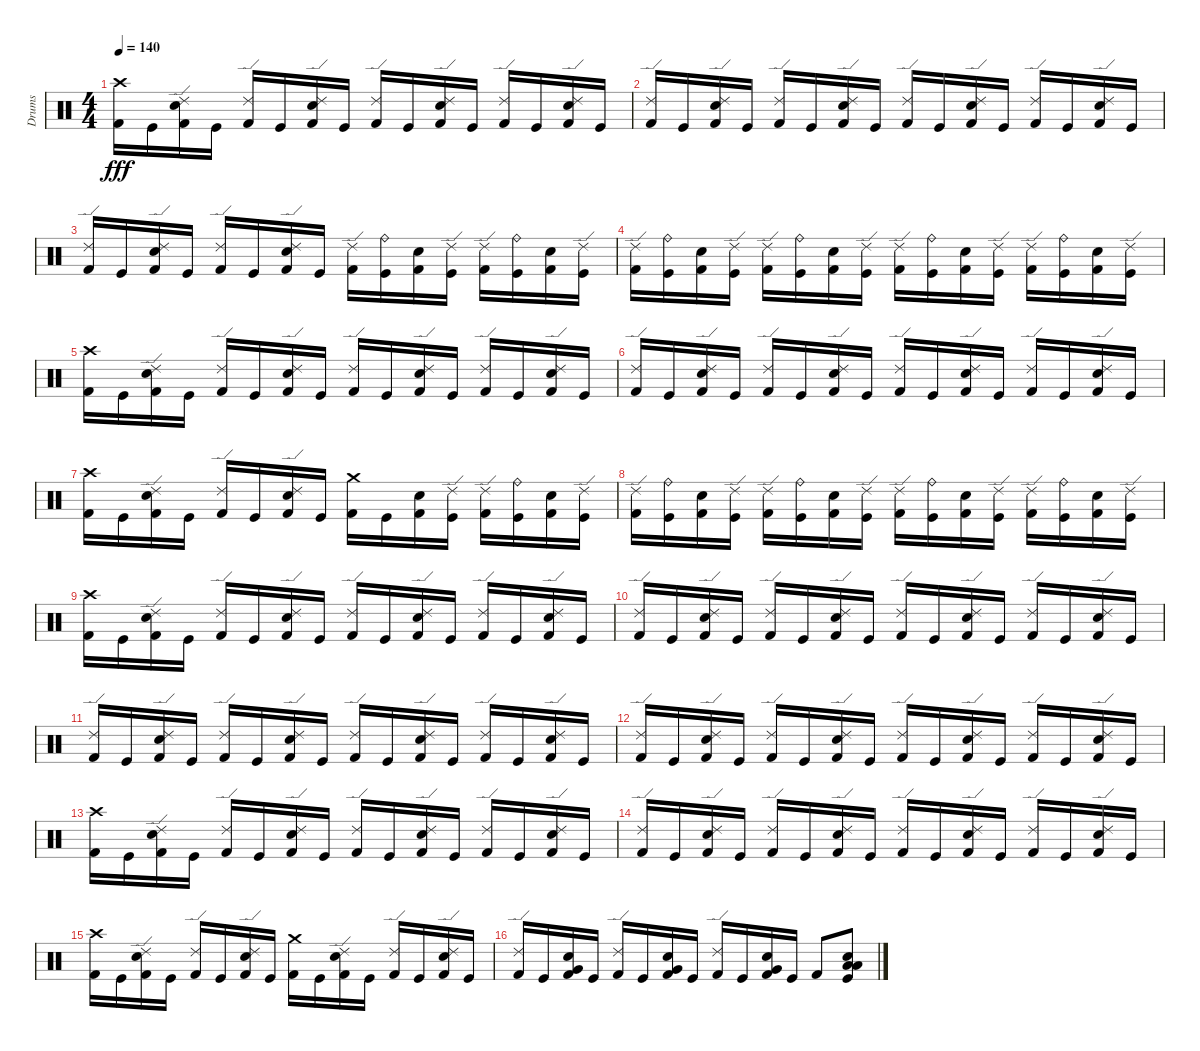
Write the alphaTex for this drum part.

\track ("Drums" "Drums") {instrument percussion}
\staff {score}
\articulation defaults
\ts (4 4)
\tempo 140
\clef neutral
\ks c
("Crash high (hit)" "Kick (hit) 2").16{dy fff} "Kick (hit)".16 ("Ride (edge) 2" "Electric Snare (hit)" "Kick (hit) 2").16 "Kick (hit)".16 ("Ride (edge) 2" "Kick (hit) 2").16 "Kick (hit)".16 ("Ride (edge) 2" "Electric Snare (hit)" "Kick (hit) 2").16 "Kick (hit)".16 ("Ride (edge) 2" "Kick (hit) 2").16 "Kick (hit)".16 ("Ride (edge) 2" "Electric Snare (hit)" "Kick (hit) 2").16 "Kick (hit)".16 ("Ride (edge) 2" "Kick (hit) 2").16 "Kick (hit)".16 ("Ride (edge) 2" "Electric Snare (hit)" "Kick (hit) 2").16 "Kick (hit)".16 |
("Ride (edge) 2" "Kick (hit) 2").16 "Kick (hit)".16 ("Ride (edge) 2" "Electric Snare (hit)" "Kick (hit) 2").16 "Kick (hit)".16 ("Ride (edge) 2" "Kick (hit) 2").16 "Kick (hit)".16 ("Ride (edge) 2" "Electric Snare (hit)" "Kick (hit) 2").16 "Kick (hit)".16 ("Ride (edge) 2" "Kick (hit) 2").16 "Kick (hit)".16 ("Ride (edge) 2" "Electric Snare (hit)" "Kick (hit) 2").16 "Kick (hit)".16 ("Ride (edge) 2" "Kick (hit) 2").16 "Kick (hit)".16 ("Ride (edge) 2" "Electric Snare (hit)" "Kick (hit) 2").16 "Kick (hit)".16 |
("Ride (edge) 2" "Kick (hit) 2").16 "Kick (hit)".16 ("Ride (edge) 2" "Electric Snare (hit)" "Kick (hit) 2").16 "Kick (hit)".16 ("Ride (edge) 2" "Kick (hit) 2").16 "Kick (hit)".16 ("Ride (edge) 2" "Electric Snare (hit)" "Kick (hit) 2").16 "Kick (hit)".16 ("Ride (edge) 2" "Kick (hit) 2").16 ("Ride (bell)" "Kick (hit)").16 ("Electric Snare (hit)" "Kick (hit) 2").16 ("Ride (edge) 2" "Kick (hit)").16 ("Ride (edge) 2" "Kick (hit) 2").16 ("Ride (bell)" "Kick (hit)").16 ("Electric Snare (hit)" "Kick (hit) 2").16 ("Ride (edge) 2" "Kick (hit)").16 |
("Ride (edge) 2" "Kick (hit) 2").16 ("Ride (bell)" "Kick (hit)").16 ("Electric Snare (hit)" "Kick (hit) 2").16 ("Ride (edge) 2" "Kick (hit)").16 ("Ride (edge) 2" "Kick (hit) 2").16 ("Ride (bell)" "Kick (hit)").16 ("Electric Snare (hit)" "Kick (hit) 2").16 ("Ride (edge) 2" "Kick (hit)").16 ("Ride (edge) 2" "Kick (hit) 2").16 ("Ride (bell)" "Kick (hit)").16 ("Electric Snare (hit)" "Kick (hit) 2").16 ("Ride (edge) 2" "Kick (hit)").16 ("Ride (edge) 2" "Kick (hit) 2").16 ("Ride (bell)" "Kick (hit)").16 ("Electric Snare (hit)" "Kick (hit) 2").16 ("Ride (edge) 2" "Kick (hit)").16 |
("Crash high (hit)" "Kick (hit) 2").16 "Kick (hit)".16 ("Ride (edge) 2" "Electric Snare (hit)" "Kick (hit) 2").16 "Kick (hit)".16 ("Ride (edge) 2" "Kick (hit) 2").16 "Kick (hit)".16 ("Ride (edge) 2" "Electric Snare (hit)" "Kick (hit) 2").16 "Kick (hit)".16 ("Ride (edge) 2" "Kick (hit) 2").16 "Kick (hit)".16 ("Ride (edge) 2" "Electric Snare (hit)" "Kick (hit) 2").16 "Kick (hit)".16 ("Ride (edge) 2" "Kick (hit) 2").16 "Kick (hit)".16 ("Ride (edge) 2" "Electric Snare (hit)" "Kick (hit) 2").16 "Kick (hit)".16 |
("Ride (edge) 2" "Kick (hit) 2").16 "Kick (hit)".16 ("Ride (edge) 2" "Electric Snare (hit)" "Kick (hit) 2").16 "Kick (hit)".16 ("Ride (edge) 2" "Kick (hit) 2").16 "Kick (hit)".16 ("Ride (edge) 2" "Electric Snare (hit)" "Kick (hit) 2").16 "Kick (hit)".16 ("Ride (edge) 2" "Kick (hit) 2").16 "Kick (hit)".16 ("Ride (edge) 2" "Electric Snare (hit)" "Kick (hit) 2").16 "Kick (hit)".16 ("Ride (edge) 2" "Kick (hit) 2").16 "Kick (hit)".16 ("Ride (edge) 2" "Electric Snare (hit)" "Kick (hit) 2").16 "Kick (hit)".16 |
("Crash high (hit)" "Kick (hit) 2").16 "Kick (hit)".16 ("Ride (edge) 2" "Electric Snare (hit)" "Kick (hit) 2").16 "Kick (hit)".16 ("Ride (edge) 2" "Kick (hit) 2").16 "Kick (hit)".16 ("Ride (edge) 2" "Electric Snare (hit)" "Kick (hit) 2").16 "Kick (hit)".16 ("Crash medium (hit)" "Kick (hit) 2").16 "Kick (hit)".16 ("Electric Snare (hit)" "Kick (hit) 2").16 ("Ride (edge) 2" "Kick (hit)").16 ("Ride (edge) 2" "Kick (hit) 2").16 ("Ride (bell)" "Kick (hit)").16 ("Electric Snare (hit)" "Kick (hit) 2").16 ("Ride (edge) 2" "Kick (hit)").16 |
("Ride (edge) 2" "Kick (hit) 2").16 ("Ride (bell)" "Kick (hit)").16 ("Electric Snare (hit)" "Kick (hit) 2").16 ("Ride (edge) 2" "Kick (hit)").16 ("Ride (edge) 2" "Kick (hit) 2").16 ("Ride (bell)" "Kick (hit)").16 ("Electric Snare (hit)" "Kick (hit) 2").16 ("Ride (edge) 2" "Kick (hit)").16 ("Ride (edge) 2" "Kick (hit) 2").16 ("Ride (bell)" "Kick (hit)").16 ("Electric Snare (hit)" "Kick (hit) 2").16 ("Ride (edge) 2" "Kick (hit)").16 ("Ride (edge) 2" "Kick (hit) 2").16 ("Ride (bell)" "Kick (hit)").16 ("Electric Snare (hit)" "Kick (hit) 2").16 ("Ride (edge) 2" "Kick (hit)").16 |
("Crash high (hit)" "Kick (hit) 2").16 "Kick (hit)".16 ("Ride (edge) 2" "Electric Snare (hit)" "Kick (hit) 2").16 "Kick (hit)".16 ("Ride (edge) 2" "Kick (hit) 2").16 "Kick (hit)".16 ("Ride (edge) 2" "Electric Snare (hit)" "Kick (hit) 2").16 "Kick (hit)".16 ("Ride (edge) 2" "Kick (hit) 2").16 "Kick (hit)".16 ("Ride (edge) 2" "Electric Snare (hit)" "Kick (hit) 2").16 "Kick (hit)".16 ("Ride (edge) 2" "Kick (hit) 2").16 "Kick (hit)".16 ("Ride (edge) 2" "Electric Snare (hit)" "Kick (hit) 2").16 "Kick (hit)".16 |
("Ride (edge) 2" "Kick (hit) 2").16 "Kick (hit)".16 ("Ride (edge) 2" "Electric Snare (hit)" "Kick (hit) 2").16 "Kick (hit)".16 ("Ride (edge) 2" "Kick (hit) 2").16 "Kick (hit)".16 ("Ride (edge) 2" "Electric Snare (hit)" "Kick (hit) 2").16 "Kick (hit)".16 ("Ride (edge) 2" "Kick (hit) 2").16 "Kick (hit)".16 ("Ride (edge) 2" "Electric Snare (hit)" "Kick (hit) 2").16 "Kick (hit)".16 ("Ride (edge) 2" "Kick (hit) 2").16 "Kick (hit)".16 ("Ride (edge) 2" "Electric Snare (hit)" "Kick (hit) 2").16 "Kick (hit)".16 |
("Ride (edge) 2" "Kick (hit) 2").16 "Kick (hit)".16 ("Ride (edge) 2" "Electric Snare (hit)" "Kick (hit) 2").16 "Kick (hit)".16 ("Ride (edge) 2" "Kick (hit) 2").16 "Kick (hit)".16 ("Ride (edge) 2" "Electric Snare (hit)" "Kick (hit) 2").16 "Kick (hit)".16 ("Ride (edge) 2" "Kick (hit) 2").16 "Kick (hit)".16 ("Ride (edge) 2" "Electric Snare (hit)" "Kick (hit) 2").16 "Kick (hit)".16 ("Ride (edge) 2" "Kick (hit) 2").16 "Kick (hit)".16 ("Ride (edge) 2" "Electric Snare (hit)" "Kick (hit) 2").16 "Kick (hit)".16 |
("Ride (edge) 2" "Kick (hit) 2").16 "Kick (hit)".16 ("Ride (edge) 2" "Electric Snare (hit)" "Kick (hit) 2").16 "Kick (hit)".16 ("Ride (edge) 2" "Kick (hit) 2").16 "Kick (hit)".16 ("Ride (edge) 2" "Electric Snare (hit)" "Kick (hit) 2").16 "Kick (hit)".16 ("Ride (edge) 2" "Kick (hit) 2").16 "Kick (hit)".16 ("Ride (edge) 2" "Electric Snare (hit)" "Kick (hit) 2").16 "Kick (hit)".16 ("Ride (edge) 2" "Kick (hit) 2").16 "Kick (hit)".16 ("Ride (edge) 2" "Electric Snare (hit)" "Kick (hit) 2").16 "Kick (hit)".16 |
("Crash high (hit)" "Kick (hit) 2").16 "Kick (hit)".16 ("Ride (edge) 2" "Electric Snare (hit)" "Kick (hit) 2").16 "Kick (hit)".16 ("Ride (edge) 2" "Kick (hit) 2").16 "Kick (hit)".16 ("Ride (edge) 2" "Electric Snare (hit)" "Kick (hit) 2").16 "Kick (hit)".16 ("Ride (edge) 2" "Kick (hit) 2").16 "Kick (hit)".16 ("Ride (edge) 2" "Electric Snare (hit)" "Kick (hit) 2").16 "Kick (hit)".16 ("Ride (edge) 2" "Kick (hit) 2").16 "Kick (hit)".16 ("Ride (edge) 2" "Electric Snare (hit)" "Kick (hit) 2").16 "Kick (hit)".16 |
("Ride (edge) 2" "Kick (hit) 2").16 "Kick (hit)".16 ("Ride (edge) 2" "Electric Snare (hit)" "Kick (hit) 2").16 "Kick (hit)".16 ("Ride (edge) 2" "Kick (hit) 2").16 "Kick (hit)".16 ("Ride (edge) 2" "Electric Snare (hit)" "Kick (hit) 2").16 "Kick (hit)".16 ("Ride (edge) 2" "Kick (hit) 2").16 "Kick (hit)".16 ("Ride (edge) 2" "Electric Snare (hit)" "Kick (hit) 2").16 "Kick (hit)".16 ("Ride (edge) 2" "Kick (hit) 2").16 "Kick (hit)".16 ("Ride (edge) 2" "Electric Snare (hit)" "Kick (hit) 2").16 "Kick (hit)".16 |
("Crash high (hit)" "Kick (hit) 2").16 "Kick (hit)".16 ("Ride (edge) 2" "Electric Snare (hit)" "Kick (hit) 2").16 "Kick (hit)".16 ("Ride (edge) 2" "Kick (hit) 2").16 "Kick (hit)".16 ("Ride (edge) 2" "Electric Snare (hit)" "Kick (hit) 2").16 "Kick (hit)".16 ("Crash medium (hit)" "Kick (hit) 2").16 "Kick (hit)".16 ("Ride (edge) 2" "Electric Snare (hit)" "Kick (hit) 2").16 "Kick (hit)".16 ("Ride (edge) 2" "Kick (hit) 2").16 "Kick (hit)".16 ("Ride (edge) 2" "Electric Snare (hit)" "Kick (hit) 2").16 "Kick (hit)".16 |
("Ride (edge) 2" "Kick (hit) 2").16 "Kick (hit)".16 ("Very Low Tom (hit)" "Electric Snare (hit)" "Kick (hit) 2").16 "Kick (hit)".16 ("Ride (edge) 2" "Kick (hit) 2").16 "Kick (hit)".16 ("Very Low Tom (hit)" "Electric Snare (hit)" "Kick (hit) 2").16 "Kick (hit)".16 ("Ride (edge) 2" "Kick (hit) 2").16 "Kick (hit)".16 ("Very Low Tom (hit)" "Electric Snare (hit)" "Kick (hit) 2").16 "Kick (hit)".16 "Kick (hit) 2".8 ("Low Floor Tom (hit)" "Low Tom (hit)" "Electric Snare (hit)" "Kick (hit)").8
